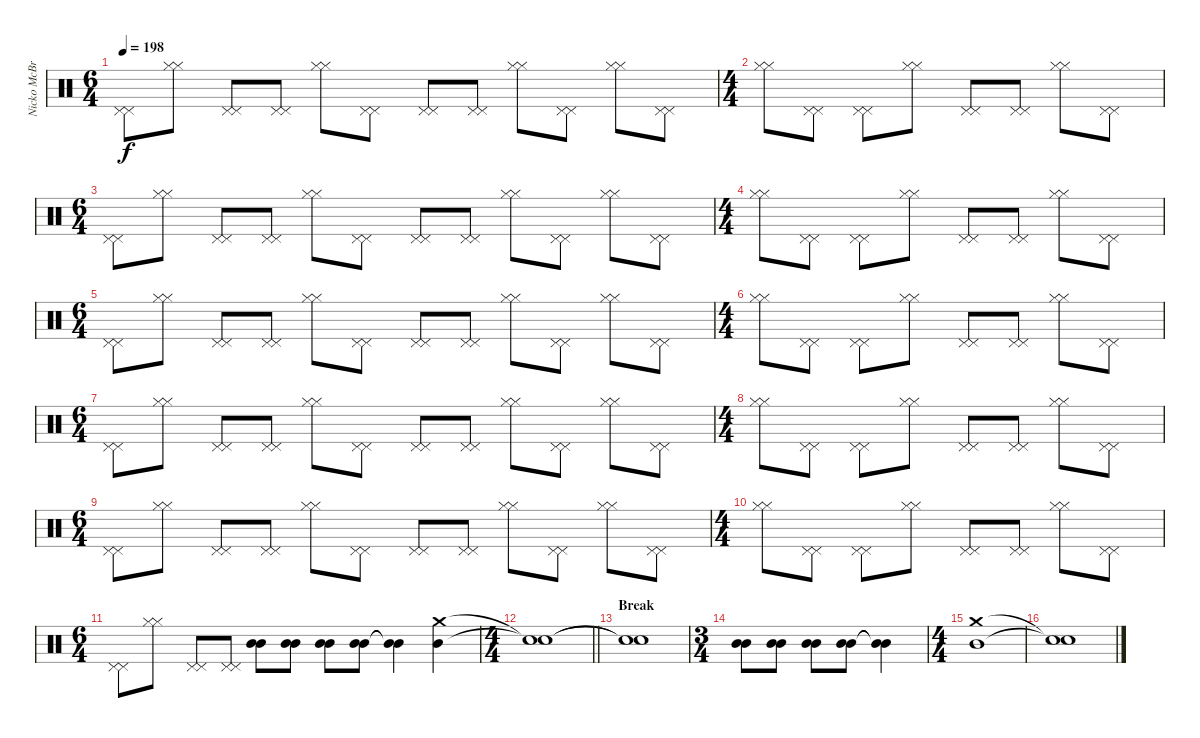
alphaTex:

\track ("Nicko McBrain" "Nicko McBr") {instrument percussion}
\staff {score}
\articulation defaults
\ts (6 4)
\tempo 198
\clef neutral
\ks c
("Pedal Hi-Hat (hit)" "Pedal Hi-Hat (hit)").8{dy f} ("Hi-Hat (closed)" "Hi-Hat (closed)").8 ("Pedal Hi-Hat (hit)" "Pedal Hi-Hat (hit)").8 ("Pedal Hi-Hat (hit)" "Pedal Hi-Hat (hit)").8 ("Hi-Hat (closed)" "Hi-Hat (closed)").8 ("Pedal Hi-Hat (hit)" "Pedal Hi-Hat (hit)").8 ("Pedal Hi-Hat (hit)" "Pedal Hi-Hat (hit)").8 ("Pedal Hi-Hat (hit)" "Pedal Hi-Hat (hit)").8 ("Hi-Hat (closed)" "Hi-Hat (closed)").8 ("Pedal Hi-Hat (hit)" "Pedal Hi-Hat (hit)").8 ("Hi-Hat (closed)" "Hi-Hat (closed)").8 ("Pedal Hi-Hat (hit)" "Pedal Hi-Hat (hit)").8 |
\ts (4 4)
("Hi-Hat (closed)" "Hi-Hat (closed)").8 ("Pedal Hi-Hat (hit)" "Pedal Hi-Hat (hit)").8 ("Pedal Hi-Hat (hit)" "Pedal Hi-Hat (hit)").8 ("Hi-Hat (closed)" "Hi-Hat (closed)").8 ("Pedal Hi-Hat (hit)" "Pedal Hi-Hat (hit)").8 ("Pedal Hi-Hat (hit)" "Pedal Hi-Hat (hit)").8 ("Hi-Hat (closed)" "Hi-Hat (closed)").8 ("Pedal Hi-Hat (hit)" "Pedal Hi-Hat (hit)").8 |
\ts (6 4)
("Pedal Hi-Hat (hit)" "Pedal Hi-Hat (hit)").8 ("Hi-Hat (closed)" "Hi-Hat (closed)").8 ("Pedal Hi-Hat (hit)" "Pedal Hi-Hat (hit)").8 ("Pedal Hi-Hat (hit)" "Pedal Hi-Hat (hit)").8 ("Hi-Hat (closed)" "Hi-Hat (closed)").8 ("Pedal Hi-Hat (hit)" "Pedal Hi-Hat (hit)").8 ("Pedal Hi-Hat (hit)" "Pedal Hi-Hat (hit)").8 ("Pedal Hi-Hat (hit)" "Pedal Hi-Hat (hit)").8 ("Hi-Hat (closed)" "Hi-Hat (closed)").8 ("Pedal Hi-Hat (hit)" "Pedal Hi-Hat (hit)").8 ("Hi-Hat (closed)" "Hi-Hat (closed)").8 ("Pedal Hi-Hat (hit)" "Pedal Hi-Hat (hit)").8 |
\ts (4 4)
("Hi-Hat (closed)" "Hi-Hat (closed)").8 ("Pedal Hi-Hat (hit)" "Pedal Hi-Hat (hit)").8 ("Pedal Hi-Hat (hit)" "Pedal Hi-Hat (hit)").8 ("Hi-Hat (closed)" "Hi-Hat (closed)").8 ("Pedal Hi-Hat (hit)" "Pedal Hi-Hat (hit)").8 ("Pedal Hi-Hat (hit)" "Pedal Hi-Hat (hit)").8 ("Hi-Hat (closed)" "Hi-Hat (closed)").8 ("Pedal Hi-Hat (hit)" "Pedal Hi-Hat (hit)").8 |
\ts (6 4)
("Pedal Hi-Hat (hit)" "Pedal Hi-Hat (hit)").8 ("Hi-Hat (closed)" "Hi-Hat (closed)").8 ("Pedal Hi-Hat (hit)" "Pedal Hi-Hat (hit)").8 ("Pedal Hi-Hat (hit)" "Pedal Hi-Hat (hit)").8 ("Hi-Hat (closed)" "Hi-Hat (closed)").8 ("Pedal Hi-Hat (hit)" "Pedal Hi-Hat (hit)").8 ("Pedal Hi-Hat (hit)" "Pedal Hi-Hat (hit)").8 ("Pedal Hi-Hat (hit)" "Pedal Hi-Hat (hit)").8 ("Hi-Hat (closed)" "Hi-Hat (closed)").8 ("Pedal Hi-Hat (hit)" "Pedal Hi-Hat (hit)").8 ("Hi-Hat (closed)" "Hi-Hat (closed)").8 ("Pedal Hi-Hat (hit)" "Pedal Hi-Hat (hit)").8 |
\ts (4 4)
("Hi-Hat (closed)" "Hi-Hat (closed)").8 ("Pedal Hi-Hat (hit)" "Pedal Hi-Hat (hit)").8 ("Pedal Hi-Hat (hit)" "Pedal Hi-Hat (hit)").8 ("Hi-Hat (closed)" "Hi-Hat (closed)").8 ("Pedal Hi-Hat (hit)" "Pedal Hi-Hat (hit)").8 ("Pedal Hi-Hat (hit)" "Pedal Hi-Hat (hit)").8 ("Hi-Hat (closed)" "Hi-Hat (closed)").8 ("Pedal Hi-Hat (hit)" "Pedal Hi-Hat (hit)").8 |
\ts (6 4)
("Pedal Hi-Hat (hit)" "Pedal Hi-Hat (hit)").8 ("Hi-Hat (closed)" "Hi-Hat (closed)").8 ("Pedal Hi-Hat (hit)" "Pedal Hi-Hat (hit)").8 ("Pedal Hi-Hat (hit)" "Pedal Hi-Hat (hit)").8 ("Hi-Hat (closed)" "Hi-Hat (closed)").8 ("Pedal Hi-Hat (hit)" "Pedal Hi-Hat (hit)").8 ("Pedal Hi-Hat (hit)" "Pedal Hi-Hat (hit)").8 ("Pedal Hi-Hat (hit)" "Pedal Hi-Hat (hit)").8 ("Hi-Hat (closed)" "Hi-Hat (closed)").8 ("Pedal Hi-Hat (hit)" "Pedal Hi-Hat (hit)").8 ("Hi-Hat (closed)" "Hi-Hat (closed)").8 ("Pedal Hi-Hat (hit)" "Pedal Hi-Hat (hit)").8 |
\ts (4 4)
("Hi-Hat (closed)" "Hi-Hat (closed)").8 ("Pedal Hi-Hat (hit)" "Pedal Hi-Hat (hit)").8 ("Pedal Hi-Hat (hit)" "Pedal Hi-Hat (hit)").8 ("Hi-Hat (closed)" "Hi-Hat (closed)").8 ("Pedal Hi-Hat (hit)" "Pedal Hi-Hat (hit)").8 ("Pedal Hi-Hat (hit)" "Pedal Hi-Hat (hit)").8 ("Hi-Hat (closed)" "Hi-Hat (closed)").8 ("Pedal Hi-Hat (hit)" "Pedal Hi-Hat (hit)").8 |
\ts (6 4)
("Pedal Hi-Hat (hit)" "Pedal Hi-Hat (hit)").8 ("Hi-Hat (closed)" "Hi-Hat (closed)").8 ("Pedal Hi-Hat (hit)" "Pedal Hi-Hat (hit)").8 ("Pedal Hi-Hat (hit)" "Pedal Hi-Hat (hit)").8 ("Hi-Hat (closed)" "Hi-Hat (closed)").8 ("Pedal Hi-Hat (hit)" "Pedal Hi-Hat (hit)").8 ("Pedal Hi-Hat (hit)" "Pedal Hi-Hat (hit)").8 ("Pedal Hi-Hat (hit)" "Pedal Hi-Hat (hit)").8 ("Hi-Hat (closed)" "Hi-Hat (closed)").8 ("Pedal Hi-Hat (hit)" "Pedal Hi-Hat (hit)").8 ("Hi-Hat (closed)" "Hi-Hat (closed)").8 ("Pedal Hi-Hat (hit)" "Pedal Hi-Hat (hit)").8 |
\ts (4 4)
("Hi-Hat (closed)" "Hi-Hat (closed)").8 ("Pedal Hi-Hat (hit)" "Pedal Hi-Hat (hit)").8 ("Pedal Hi-Hat (hit)" "Pedal Hi-Hat (hit)").8 ("Hi-Hat (closed)" "Hi-Hat (closed)").8 ("Pedal Hi-Hat (hit)" "Pedal Hi-Hat (hit)").8 ("Pedal Hi-Hat (hit)" "Pedal Hi-Hat (hit)").8 ("Hi-Hat (closed)" "Hi-Hat (closed)").8 ("Pedal Hi-Hat (hit)" "Pedal Hi-Hat (hit)").8 |
\ts (6 4)
("Pedal Hi-Hat (hit)" "Pedal Hi-Hat (hit)").8 ("Hi-Hat (closed)" "Hi-Hat (closed)").8 ("Pedal Hi-Hat (hit)" "Pedal Hi-Hat (hit)").8 ("Pedal Hi-Hat (hit)" "Pedal Hi-Hat (hit)").8 ("Mid Tom (hit)" "Mid Tom (hit)").8 ("Mid Tom (hit)" "Mid Tom (hit)").8 ("Mid Tom (hit)" "Mid Tom (hit)").8 ("Mid Tom (hit)" "Mid Tom (hit)").8 ("Mid Tom (hit)"{t} "Mid Tom (hit)"{t}).4 ("Crash medium (hit)" "Mid Tom (hit)").4 |
\ts (4 4)
\barLineRight lightlight
("Snare (hit)"{t} "Snare (hit)"{t}).1 |
\section ("" "Break")
("Snare (hit)"{t} "Snare (hit)"{t}).1 |
\ts (3 4)
("Mid Tom (hit)" "Mid Tom (hit)").8 ("Mid Tom (hit)" "Mid Tom (hit)").8 ("Mid Tom (hit)" "Mid Tom (hit)").8 ("Mid Tom (hit)" "Mid Tom (hit)").8 ("Mid Tom (hit)"{t} "Mid Tom (hit)"{t}).4 |
\ts (4 4)
("Crash medium (hit)" "Mid Tom (hit)").1 |
("Snare (hit)"{t} "Snare (hit)"{t}).1
